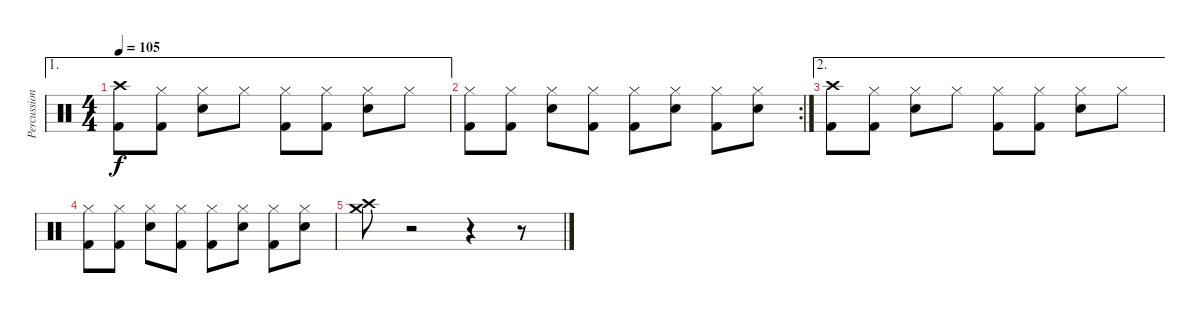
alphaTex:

\track ("Percussions" "Percussion") {instrument percussion}
\staff {score}
\articulation defaults
\ae 1
\ts (4 4)
\tempo 105
\clef neutral
\ks c
("Crash high (hit)" "Kick (hit) 2").8{dy f} ("Hi-Hat (closed)" "Kick (hit) 2").8 ("Hi-Hat (closed)" "Electric Snare (hit)").8 "Hi-Hat (closed)".8 ("Hi-Hat (closed)" "Kick (hit) 2").8 ("Hi-Hat (closed)" "Kick (hit) 2").8 ("Hi-Hat (closed)" "Electric Snare (hit)").8 "Hi-Hat (closed)".8 |
\rc 2
("Hi-Hat (closed)" "Kick (hit) 2").8 ("Hi-Hat (closed)" "Kick (hit) 2").8 ("Hi-Hat (closed)" "Electric Snare (hit)").8 ("Hi-Hat (closed)" "Kick (hit) 2").8 ("Hi-Hat (closed)" "Kick (hit) 2").8 ("Hi-Hat (closed)" "Electric Snare (hit)").8 ("Hi-Hat (closed)" "Kick (hit) 2").8 ("Hi-Hat (closed)" "Electric Snare (hit)").8 |
\ae 2
("Crash high (hit)" "Kick (hit) 2").8 ("Hi-Hat (closed)" "Kick (hit) 2").8 ("Hi-Hat (closed)" "Electric Snare (hit)").8 "Hi-Hat (closed)".8 ("Hi-Hat (closed)" "Kick (hit) 2").8 ("Hi-Hat (closed)" "Kick (hit) 2").8 ("Hi-Hat (closed)" "Electric Snare (hit)").8 "Hi-Hat (closed)".8 |
("Hi-Hat (closed)" "Kick (hit) 2").8 ("Hi-Hat (closed)" "Kick (hit) 2").8 ("Hi-Hat (closed)" "Electric Snare (hit)").8 ("Hi-Hat (closed)" "Kick (hit) 2").8 ("Hi-Hat (closed)" "Kick (hit) 2").8 ("Hi-Hat (closed)" "Electric Snare (hit)").8 ("Hi-Hat (closed)" "Kick (hit) 2").8 ("Hi-Hat (closed)" "Electric Snare (hit)").8 |
("Crash high (hit)" "Crash medium (hit)").8 r.2 r.4 r.8
